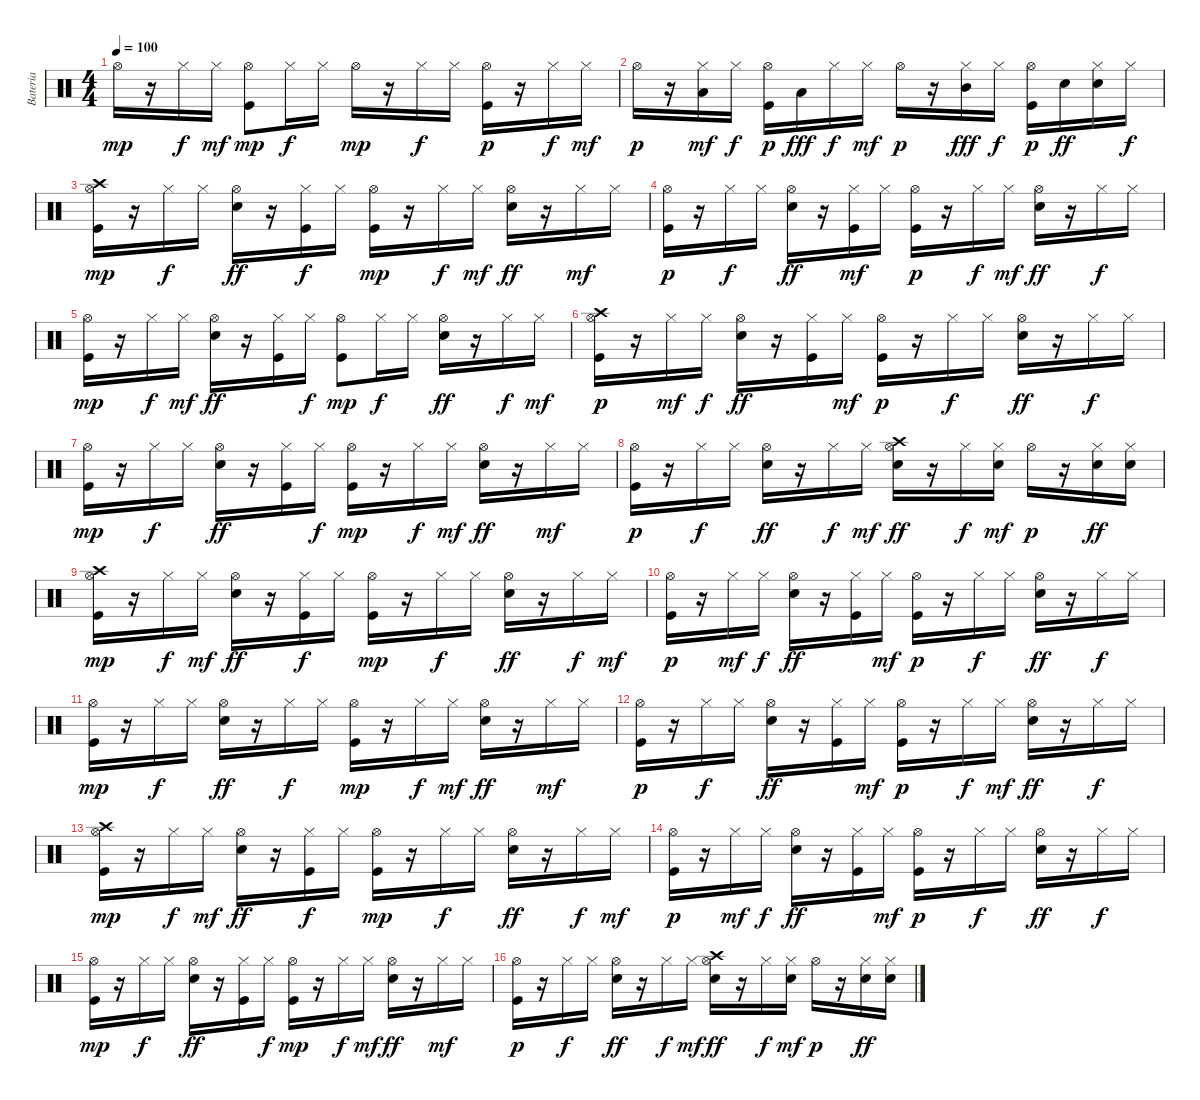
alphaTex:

\track ("Bateria" "Bateria") {solo instrument percussion}
\staff {score}
\articulation defaults
\ts (4 4)
\tempo 100
\clef neutral
\ks c "Hi-Hat (open)".16{dy mp}
r.16 "Hi-Hat (closed)".16{dy f} "Hi-Hat (closed)".16{dy mf} ("Kick (hit)" "Hi-Hat (open)").8{dy mp} "Hi-Hat (closed)".16{dy f} "Hi-Hat (closed)".16 "Hi-Hat (open)".16{dy mp} r.16 "Hi-Hat (closed)".16{dy f} "Hi-Hat (closed)".16 ("Kick (hit)" "Hi-Hat (open)").16{dy p} r.16 "Hi-Hat (closed)".16{dy f} "Hi-Hat (closed)".16{dy mf} |
"Hi-Hat (open)".16{dy p} r.16 ("Low Tom (hit)" "Hi-Hat (closed)").16{dy mf} "Hi-Hat (closed)".16{dy f} ("Kick (hit)" "Hi-Hat (open)").16{dy p} "Low Floor Tom (hit)".16{dy fff} "Hi-Hat (closed)".16{dy f} "Hi-Hat (closed)".16{dy mf} "Hi-Hat (open)".16{dy p} r.16 ("Mid Tom (hit)" "Hi-Hat (closed)").16{dy fff} "Hi-Hat (closed)".16{dy f} ("Kick (hit)" "Hi-Hat (open)").16{dy p} "Snare (hit) 2".16{dy ff} ("Snare (hit) 2" "Hi-Hat (closed)").16 "Hi-Hat (closed)".16{dy f} |
("Kick (hit)" "Crash high (hit)" "Hi-Hat (open)").16{dy mp} r.16 "Hi-Hat (closed)".16{dy f} "Hi-Hat (closed)".16 ("Hi-Hat (open)" "Snare (hit) 2").16{dy ff} r.16 ("Kick (hit)" "Hi-Hat (closed)").16{dy f} "Hi-Hat (closed)".16 ("Kick (hit)" "Hi-Hat (open)").16{dy mp} r.16 "Hi-Hat (closed)".16{dy f} "Hi-Hat (closed)".16{dy mf} ("Hi-Hat (open)" "Snare (hit) 2").16{dy ff} r.16 "Hi-Hat (closed)".16{dy mf} "Hi-Hat (closed)".16 |
("Kick (hit)" "Hi-Hat (open)").16{dy p} r.16 "Hi-Hat (closed)".16{dy f} "Hi-Hat (closed)".16 ("Hi-Hat (open)" "Snare (hit) 2").16{dy ff} r.16 ("Kick (hit)" "Hi-Hat (closed)").16{dy mf} "Hi-Hat (closed)".16 ("Kick (hit)" "Hi-Hat (open)").16{dy p} r.16 "Hi-Hat (closed)".16{dy f} "Hi-Hat (closed)".16{dy mf} ("Hi-Hat (open)" "Snare (hit) 2").16{dy ff} r.16 "Hi-Hat (closed)".16{dy f} "Hi-Hat (closed)".16 |
("Kick (hit)" "Hi-Hat (open)").16{dy mp} r.16 "Hi-Hat (closed)".16{dy f} "Hi-Hat (closed)".16{dy mf} ("Hi-Hat (open)" "Snare (hit) 2").16{dy ff} r.16 ("Kick (hit)" "Hi-Hat (closed)").16 "Hi-Hat (closed)".16{dy f} ("Kick (hit)" "Hi-Hat (open)").8{dy mp} "Hi-Hat (closed)".16{dy f} "Hi-Hat (closed)".16 ("Hi-Hat (open)" "Snare (hit) 2").16{dy ff} r.16 "Hi-Hat (closed)".16{dy f} "Hi-Hat (closed)".16{dy mf} |
("Kick (hit)" "Crash high (hit)" "Hi-Hat (open)").16{dy p} r.16 "Hi-Hat (closed)".16{dy mf} "Hi-Hat (closed)".16{dy f} ("Hi-Hat (open)" "Snare (hit) 2").16{dy ff} r.16 ("Kick (hit)" "Hi-Hat (closed)").16 "Hi-Hat (closed)".16{dy mf} ("Kick (hit)" "Hi-Hat (open)").16{dy p} r.16 "Hi-Hat (closed)".16{dy f} "Hi-Hat (closed)".16 ("Hi-Hat (open)" "Snare (hit) 2").16{dy ff} r.16 "Hi-Hat (closed)".16{dy f} "Hi-Hat (closed)".16 |
("Kick (hit)" "Hi-Hat (open)").16{dy mp} r.16 "Hi-Hat (closed)".16{dy f} "Hi-Hat (closed)".16 ("Hi-Hat (open)" "Snare (hit) 2").16{dy ff} r.16 ("Kick (hit)" "Hi-Hat (closed)").16 "Hi-Hat (closed)".16{dy f} ("Kick (hit)" "Hi-Hat (open)").16{dy mp} r.16 "Hi-Hat (closed)".16{dy f} "Hi-Hat (closed)".16{dy mf} ("Hi-Hat (open)" "Snare (hit) 2").16{dy ff} r.16 "Hi-Hat (closed)".16{dy mf} "Hi-Hat (closed)".16 |
("Kick (hit)" "Hi-Hat (open)").16{dy p} r.16 "Hi-Hat (closed)".16{dy f} "Hi-Hat (closed)".16 ("Hi-Hat (open)" "Snare (hit) 2").16{dy ff} r.16 "Hi-Hat (closed)".16{dy f} "Hi-Hat (closed)".16{dy mf} ("Crash high (hit)" "Hi-Hat (open)" "Snare (hit) 2").16{dy ff} r.16 "Hi-Hat (closed)".16{dy f} ("Snare (hit) 2" "Hi-Hat (closed)").16{dy mf} "Hi-Hat (open)".16{dy p} r.16 ("Snare (hit) 2" "Hi-Hat (closed)").16{dy ff} ("Snare (hit) 2" "Hi-Hat (closed)").16 |
("Kick (hit)" "Crash high (hit)" "Hi-Hat (open)").16{dy mp} r.16 "Hi-Hat (closed)".16{dy f} "Hi-Hat (closed)".16{dy mf} ("Hi-Hat (open)" "Snare (hit) 2").16{dy ff} r.16 ("Kick (hit)" "Hi-Hat (closed)").16{dy f} "Hi-Hat (closed)".16 ("Kick (hit)" "Hi-Hat (open)").16{dy mp} r.16 "Hi-Hat (closed)".16{dy f} "Hi-Hat (closed)".16 ("Hi-Hat (open)" "Snare (hit) 2").16{dy ff} r.16 "Hi-Hat (closed)".16{dy f} "Hi-Hat (closed)".16{dy mf} |
("Kick (hit)" "Hi-Hat (open)").16{dy p} r.16 "Hi-Hat (closed)".16{dy mf} "Hi-Hat (closed)".16{dy f} ("Hi-Hat (open)" "Snare (hit) 2").16{dy ff} r.16 ("Kick (hit)" "Hi-Hat (closed)").16 "Hi-Hat (closed)".16{dy mf} ("Kick (hit)" "Hi-Hat (open)").16{dy p} r.16 "Hi-Hat (closed)".16{dy f} "Hi-Hat (closed)".16 ("Hi-Hat (open)" "Snare (hit) 2").16{dy ff} r.16 "Hi-Hat (closed)".16{dy f} "Hi-Hat (closed)".16 |
("Kick (hit)" "Hi-Hat (open)").16{dy mp} r.16 "Hi-Hat (closed)".16{dy f} "Hi-Hat (closed)".16 ("Hi-Hat (open)" "Snare (hit) 2").16{dy ff} r.16 "Hi-Hat (closed)".16{dy f} "Hi-Hat (closed)".16 ("Kick (hit)" "Hi-Hat (open)").16{dy mp} r.16 "Hi-Hat (closed)".16{dy f} "Hi-Hat (closed)".16{dy mf} ("Hi-Hat (open)" "Snare (hit) 2").16{dy ff} r.16 "Hi-Hat (closed)".16{dy mf} "Hi-Hat (closed)".16 |
("Kick (hit)" "Hi-Hat (open)").16{dy p} r.16 "Hi-Hat (closed)".16{dy f} "Hi-Hat (closed)".16 ("Hi-Hat (open)" "Snare (hit) 2").16{dy ff} r.16 ("Kick (hit)" "Hi-Hat (closed)").16 "Hi-Hat (closed)".16{dy mf} ("Kick (hit)" "Hi-Hat (open)").16{dy p} r.16 "Hi-Hat (closed)".16{dy f} "Hi-Hat (closed)".16{dy mf} ("Hi-Hat (open)" "Snare (hit) 2").16{dy ff} r.16 "Hi-Hat (closed)".16{dy f} "Hi-Hat (closed)".16 |
("Kick (hit)" "Crash high (hit)" "Hi-Hat (open)").16{dy mp} r.16 "Hi-Hat (closed)".16{dy f} "Hi-Hat (closed)".16{dy mf} ("Hi-Hat (open)" "Snare (hit) 2").16{dy ff} r.16 ("Kick (hit)" "Hi-Hat (closed)").16{dy f} "Hi-Hat (closed)".16 ("Kick (hit)" "Hi-Hat (open)").16{dy mp} r.16 "Hi-Hat (closed)".16{dy f} "Hi-Hat (closed)".16 ("Hi-Hat (open)" "Snare (hit) 2").16{dy ff} r.16 "Hi-Hat (closed)".16{dy f} "Hi-Hat (closed)".16{dy mf} |
("Kick (hit)" "Hi-Hat (open)").16{dy p} r.16 "Hi-Hat (closed)".16{dy mf} "Hi-Hat (closed)".16{dy f} ("Hi-Hat (open)" "Snare (hit) 2").16{dy ff} r.16 ("Kick (hit)" "Hi-Hat (closed)").16 "Hi-Hat (closed)".16{dy mf} ("Kick (hit)" "Hi-Hat (open)").16{dy p} r.16 "Hi-Hat (closed)".16{dy f} "Hi-Hat (closed)".16 ("Hi-Hat (open)" "Snare (hit) 2").16{dy ff} r.16 "Hi-Hat (closed)".16{dy f} "Hi-Hat (closed)".16 |
("Kick (hit)" "Hi-Hat (open)").16{dy mp} r.16 "Hi-Hat (closed)".16{dy f} "Hi-Hat (closed)".16 ("Hi-Hat (open)" "Snare (hit) 2").16{dy ff} r.16 ("Kick (hit)" "Hi-Hat (closed)").16 "Hi-Hat (closed)".16{dy f} ("Kick (hit)" "Hi-Hat (open)").16{dy mp} r.16 "Hi-Hat (closed)".16{dy f} "Hi-Hat (closed)".16{dy mf} ("Hi-Hat (open)" "Snare (hit) 2").16{dy ff} r.16 "Hi-Hat (closed)".16{dy mf} "Hi-Hat (closed)".16 |
("Kick (hit)" "Hi-Hat (open)").16{dy p} r.16 "Hi-Hat (closed)".16{dy f} "Hi-Hat (closed)".16 ("Hi-Hat (open)" "Snare (hit) 2").16{dy ff} r.16 "Hi-Hat (closed)".16{dy f} "Hi-Hat (closed)".16{dy mf} ("Crash high (hit)" "Hi-Hat (open)" "Snare (hit) 2").16{dy ff} r.16 "Hi-Hat (closed)".16{dy f} ("Snare (hit) 2" "Hi-Hat (closed)").16{dy mf} "Hi-Hat (open)".16{dy p} r.16 ("Snare (hit) 2" "Hi-Hat (closed)").16{dy ff} ("Snare (hit) 2" "Hi-Hat (closed)").16
